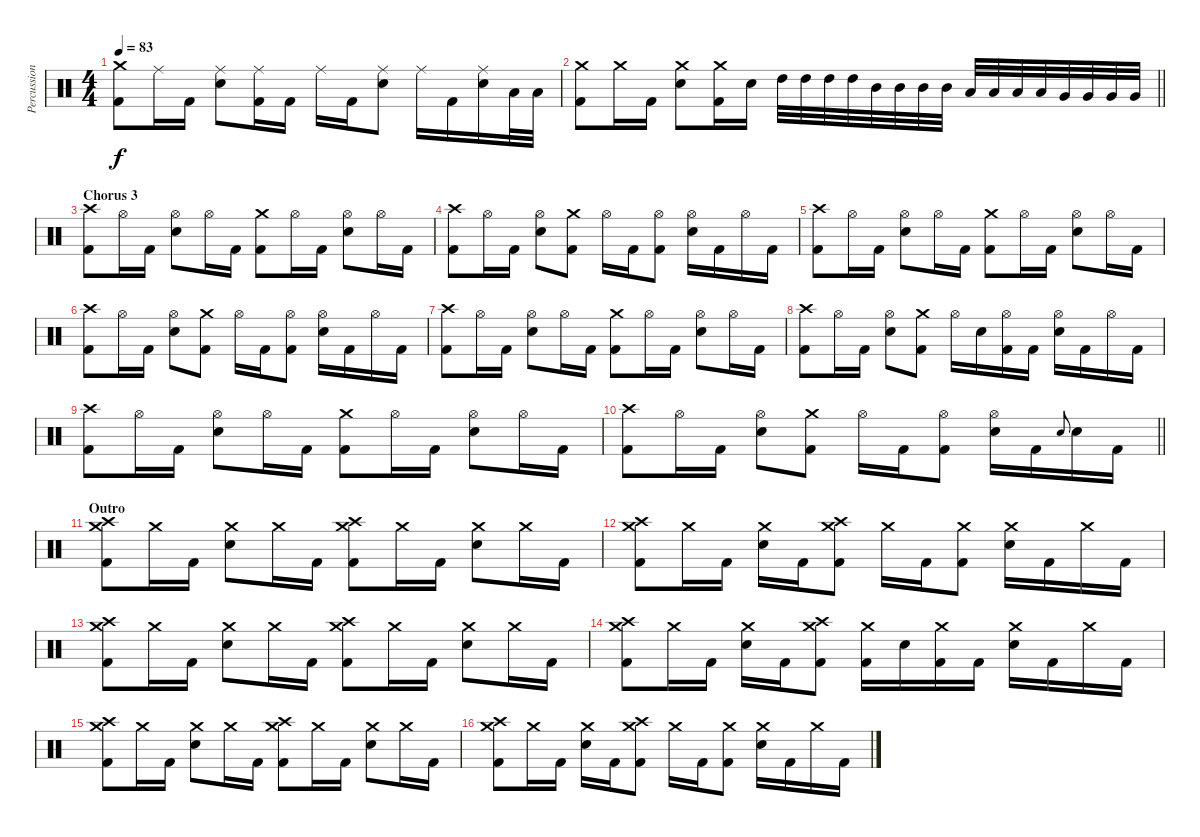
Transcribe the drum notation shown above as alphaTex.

\track ("Percussion" "Percussion") {instrument percussion}
\staff {score}
\articulation defaults
\ts (4 4)
\tempo 83
\clef neutral
\ks c
("Crash medium (hit)" "Kick (hit) 2").8{dy f} "Ride (middle)".16 "Kick (hit) 2".16 ("Ride (middle)" "Electric Snare (hit)").8 ("Ride (middle)" "Kick (hit) 2").16 "Kick (hit) 2".16 "Ride (middle)".16 "Kick (hit) 2".16 ("Ride (middle)" "Electric Snare (hit)").8 "Ride (middle)".16 "Kick (hit) 2".16 ("Ride (middle)" "Electric Snare (hit)").16 "Low Tom (hit)".32 "Low Tom (hit)".32 |
\barLineRight lightlight
("Crash medium (hit)" "Kick (hit) 2").8 "Crash medium (hit)".16 "Kick (hit) 2".16 ("Crash medium (hit)" "Electric Snare (hit)").8 ("Crash medium (hit)" "Kick (hit) 2").16 "Electric Snare (hit)".16 "High Tom (hit)".32 "High Tom (hit)".32 "High Tom (hit)".32 "High Tom (hit)".32 "Mid Tom (hit)".32 "Mid Tom (hit)".32 "Mid Tom (hit)".32 "Mid Tom (hit)".32 "Low Tom (hit)".32 "Low Tom (hit)".32 "Low Tom (hit)".32 "Low Tom (hit)".32 "Very Low Tom (hit)".32 "Very Low Tom (hit)".32 "Very Low Tom (hit)".32 "Very Low Tom (hit)".32 |
\section ("" "Chorus 3")
("Crash high (hit)" "Kick (hit) 2").8 "Hi-Hat (open)".16 "Kick (hit) 2".16 ("Hi-Hat (open)" "Electric Snare (hit)").8 "Hi-Hat (open)".16 "Kick (hit) 2".16 ("Crash medium (hit)" "Kick (hit) 2").8 "Hi-Hat (open)".16 "Kick (hit) 2".16 ("Hi-Hat (open)" "Electric Snare (hit)").8 "Hi-Hat (open)".16 "Kick (hit) 2".16 |
("Crash high (hit)" "Kick (hit) 2").8 "Hi-Hat (open)".16 "Kick (hit) 2".16 ("Hi-Hat (open)" "Electric Snare (hit)").8 ("Crash medium (hit)" "Kick (hit) 2").8 "Hi-Hat (open)".16 "Kick (hit) 2".16 ("Hi-Hat (open)" "Kick (hit) 2").8 ("Hi-Hat (open)" "Electric Snare (hit)").16 "Kick (hit) 2".16 "Hi-Hat (open)".16 "Kick (hit) 2".16 |
("Crash high (hit)" "Kick (hit) 2").8 "Hi-Hat (open)".16 "Kick (hit) 2".16 ("Hi-Hat (open)" "Electric Snare (hit)").8 "Hi-Hat (open)".16 "Kick (hit) 2".16 ("Crash medium (hit)" "Kick (hit) 2").8 "Hi-Hat (open)".16 "Kick (hit) 2".16 ("Hi-Hat (open)" "Electric Snare (hit)").8 "Hi-Hat (open)".16 "Kick (hit) 2".16 |
("Crash high (hit)" "Kick (hit) 2").8 "Hi-Hat (open)".16 "Kick (hit) 2".16 ("Hi-Hat (open)" "Electric Snare (hit)").8 ("Crash medium (hit)" "Kick (hit) 2").8 "Hi-Hat (open)".16 "Kick (hit) 2".16 ("Hi-Hat (open)" "Kick (hit) 2").8 ("Hi-Hat (open)" "Electric Snare (hit)").16 "Kick (hit) 2".16 "Hi-Hat (open)".16 "Kick (hit) 2".16 |
("Crash high (hit)" "Kick (hit) 2").8 "Hi-Hat (open)".16 "Kick (hit) 2".16 ("Hi-Hat (open)" "Electric Snare (hit)").8 "Hi-Hat (open)".16 "Kick (hit) 2".16 ("Crash medium (hit)" "Kick (hit) 2").8 "Hi-Hat (open)".16 "Kick (hit) 2".16 ("Hi-Hat (open)" "Electric Snare (hit)").8 "Hi-Hat (open)".16 "Kick (hit) 2".16 |
("Crash high (hit)" "Kick (hit) 2").8 "Hi-Hat (open)".16 "Kick (hit) 2".16 ("Hi-Hat (open)" "Electric Snare (hit)").8 ("Crash medium (hit)" "Kick (hit) 2").8 "Hi-Hat (open)".16 "Electric Snare (hit)".16 ("Hi-Hat (open)" "Kick (hit) 2").16 "Kick (hit) 2".16 ("Hi-Hat (open)" "Electric Snare (hit)").16 "Kick (hit) 2".16 "Hi-Hat (open)".16 "Kick (hit) 2".16 |
("Crash high (hit)" "Kick (hit) 2").8 "Hi-Hat (open)".16 "Kick (hit) 2".16 ("Hi-Hat (open)" "Electric Snare (hit)").8 "Hi-Hat (open)".16 "Kick (hit) 2".16 ("Crash medium (hit)" "Kick (hit) 2").8 "Hi-Hat (open)".16 "Kick (hit) 2".16 ("Hi-Hat (open)" "Electric Snare (hit)").8 "Hi-Hat (open)".16 "Kick (hit) 2".16 |
\barLineRight lightlight
("Crash high (hit)" "Kick (hit) 2").8 "Hi-Hat (open)".16 "Kick (hit) 2".16 ("Hi-Hat (open)" "Electric Snare (hit)").8 ("Crash medium (hit)" "Kick (hit) 2").8 "Hi-Hat (open)".16 "Kick (hit) 2".16 ("Hi-Hat (open)" "Kick (hit) 2").8 ("Hi-Hat (open)" "Electric Snare (hit)").16 "Kick (hit) 2".16 "Electric Snare (hit)".8{gr onbeat} "Electric Snare (hit)".16 "Kick (hit) 2".16 |
\section ("" "Outro")
("Crash medium (hit)" "Crash high (hit)" "Kick (hit) 2").8 "Crash medium (hit)".16 "Kick (hit) 2".16 ("Crash medium (hit)" "Electric Snare (hit)").8 "Crash medium (hit)".16 "Kick (hit) 2".16 ("Crash medium (hit)" "Crash high (hit)" "Kick (hit) 2").8 "Crash medium (hit)".16 "Kick (hit) 2".16 ("Crash medium (hit)" "Electric Snare (hit)").8 "Crash medium (hit)".16 "Kick (hit) 2".16 |
("Crash medium (hit)" "Crash high (hit)" "Kick (hit) 2").8 "Crash medium (hit)".16 "Kick (hit) 2".16 ("Crash medium (hit)" "Electric Snare (hit)").16 "Kick (hit) 2".16 ("Crash medium (hit)" "Crash high (hit)" "Kick (hit) 2").8 "Crash medium (hit)".16 "Kick (hit) 2".16 ("Crash medium (hit)" "Kick (hit) 2").8 ("Crash medium (hit)" "Electric Snare (hit)").16 "Kick (hit) 2".16 "Crash medium (hit)".16 "Kick (hit) 2".16 |
("Crash medium (hit)" "Crash high (hit)" "Kick (hit) 2").8 "Crash medium (hit)".16 "Kick (hit) 2".16 ("Crash medium (hit)" "Electric Snare (hit)").8 "Crash medium (hit)".16 "Kick (hit) 2".16 ("Crash medium (hit)" "Crash high (hit)" "Kick (hit) 2").8 "Crash medium (hit)".16 "Kick (hit) 2".16 ("Crash medium (hit)" "Electric Snare (hit)").8 "Crash medium (hit)".16 "Kick (hit) 2".16 |
("Crash medium (hit)" "Crash high (hit)" "Kick (hit) 2").8 "Crash medium (hit)".16 "Kick (hit) 2".16 ("Crash medium (hit)" "Electric Snare (hit)").16 "Kick (hit) 2".16 ("Crash medium (hit)" "Crash high (hit)" "Kick (hit) 2").8 ("Crash medium (hit)" "Kick (hit) 2").16 "Electric Snare (hit)".16 ("Crash medium (hit)" "Kick (hit) 2").16 "Kick (hit) 2".16 ("Crash medium (hit)" "Electric Snare (hit)").16 "Kick (hit) 2".16 "Crash medium (hit)".16 "Kick (hit) 2".16 |
("Crash medium (hit)" "Crash high (hit)" "Kick (hit) 2").8 "Crash medium (hit)".16 "Kick (hit) 2".16 ("Crash medium (hit)" "Electric Snare (hit)").8 "Crash medium (hit)".16 "Kick (hit) 2".16 ("Crash medium (hit)" "Crash high (hit)" "Kick (hit) 2").8 "Crash medium (hit)".16 "Kick (hit) 2".16 ("Crash medium (hit)" "Electric Snare (hit)").8 "Crash medium (hit)".16 "Kick (hit) 2".16 |
("Crash medium (hit)" "Crash high (hit)" "Kick (hit) 2").8 "Crash medium (hit)".16 "Kick (hit) 2".16 ("Crash medium (hit)" "Electric Snare (hit)").16 "Kick (hit) 2".16 ("Crash medium (hit)" "Crash high (hit)" "Kick (hit) 2").8 "Crash medium (hit)".16 "Kick (hit) 2".16 ("Crash medium (hit)" "Kick (hit) 2").8 ("Crash medium (hit)" "Electric Snare (hit)").16 "Kick (hit) 2".16 "Crash medium (hit)".16 "Kick (hit) 2".16
